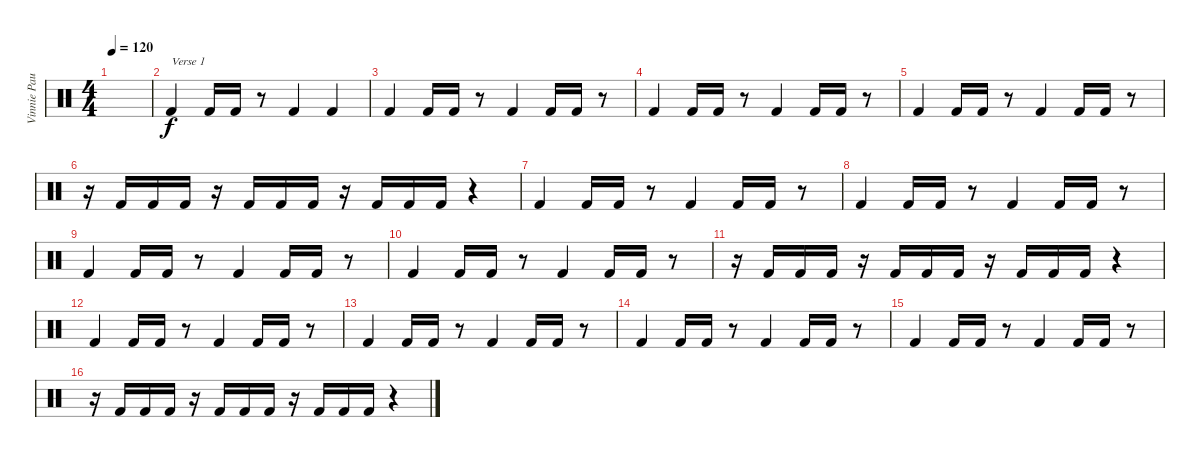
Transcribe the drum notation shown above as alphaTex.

\track ("Vinnie Paul bass drum" "Vinnie Pau") {instrument percussion}
\staff {score}
\articulation defaults
\ts (4 4)
\tempo 120
\clef neutral
\ks c
|
"Kick (hit) 2".4{txt "Verse 1"} "Kick (hit) 2".16 "Kick (hit) 2".16 r.8 "Kick (hit) 2".4 "Kick (hit) 2".4 |
"Kick (hit) 2".4 "Kick (hit) 2".16 "Kick (hit) 2".16 r.8 "Kick (hit) 2".4 "Kick (hit) 2".16 "Kick (hit) 2".16 r.8 |
"Kick (hit) 2".4 "Kick (hit) 2".16 "Kick (hit) 2".16 r.8 "Kick (hit) 2".4 "Kick (hit) 2".16 "Kick (hit) 2".16 r.8 |
"Kick (hit) 2".4 "Kick (hit) 2".16 "Kick (hit) 2".16 r.8 "Kick (hit) 2".4 "Kick (hit) 2".16 "Kick (hit) 2".16 r.8 |
r.16 "Kick (hit) 2".16 "Kick (hit) 2".16 "Kick (hit) 2".16 r.16 "Kick (hit) 2".16 "Kick (hit) 2".16 "Kick (hit) 2".16 r.16 "Kick (hit) 2".16 "Kick (hit) 2".16 "Kick (hit) 2".16 r.4 |
"Kick (hit) 2".4 "Kick (hit) 2".16 "Kick (hit) 2".16 r.8 "Kick (hit) 2".4 "Kick (hit) 2".16 "Kick (hit) 2".16 r.8 |
"Kick (hit) 2".4 "Kick (hit) 2".16 "Kick (hit) 2".16 r.8 "Kick (hit) 2".4 "Kick (hit) 2".16 "Kick (hit) 2".16 r.8 |
"Kick (hit) 2".4 "Kick (hit) 2".16 "Kick (hit) 2".16 r.8 "Kick (hit) 2".4 "Kick (hit) 2".16 "Kick (hit) 2".16 r.8 |
"Kick (hit) 2".4 "Kick (hit) 2".16 "Kick (hit) 2".16 r.8 "Kick (hit) 2".4 "Kick (hit) 2".16 "Kick (hit) 2".16 r.8 |
r.16 "Kick (hit) 2".16 "Kick (hit) 2".16 "Kick (hit) 2".16 r.16 "Kick (hit) 2".16 "Kick (hit) 2".16 "Kick (hit) 2".16 r.16 "Kick (hit) 2".16 "Kick (hit) 2".16 "Kick (hit) 2".16 r.4 |
"Kick (hit) 2".4 "Kick (hit) 2".16 "Kick (hit) 2".16 r.8 "Kick (hit) 2".4 "Kick (hit) 2".16 "Kick (hit) 2".16 r.8 |
"Kick (hit) 2".4 "Kick (hit) 2".16 "Kick (hit) 2".16 r.8 "Kick (hit) 2".4 "Kick (hit) 2".16 "Kick (hit) 2".16 r.8 |
"Kick (hit) 2".4 "Kick (hit) 2".16 "Kick (hit) 2".16 r.8 "Kick (hit) 2".4 "Kick (hit) 2".16 "Kick (hit) 2".16 r.8 |
"Kick (hit) 2".4 "Kick (hit) 2".16 "Kick (hit) 2".16 r.8 "Kick (hit) 2".4 "Kick (hit) 2".16 "Kick (hit) 2".16 r.8 |
r.16 "Kick (hit) 2".16 "Kick (hit) 2".16 "Kick (hit) 2".16 r.16 "Kick (hit) 2".16 "Kick (hit) 2".16 "Kick (hit) 2".16 r.16 "Kick (hit) 2".16 "Kick (hit) 2".16 "Kick (hit) 2".16 r.4
